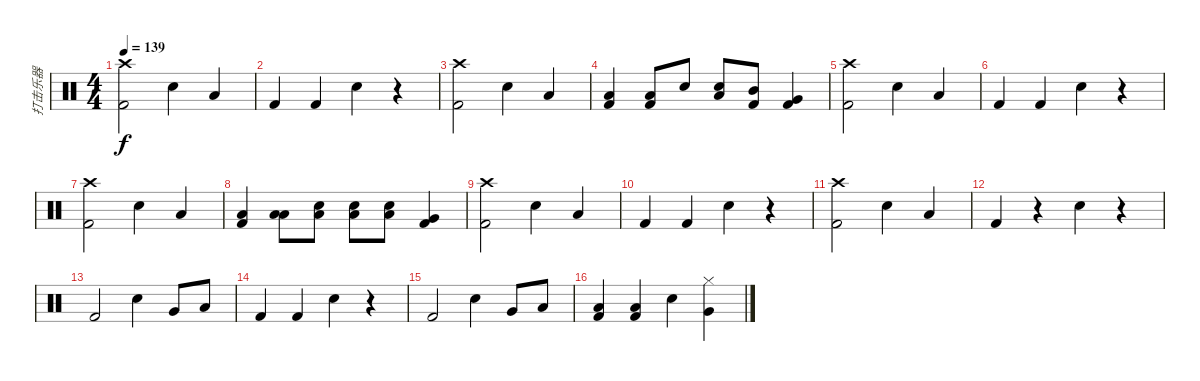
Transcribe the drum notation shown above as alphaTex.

\track ("打击乐器" "打击乐器") {instrument percussion}
\staff {score}
\articulation defaults
\ts (4 4)
\tempo 139
\clef neutral
\ks c
("Crash high (hit)" "Kick (hit) 2").2{dy f} "Electric Snare (hit)".4 "Low Floor Tom (hit)".4 |
"Kick (hit) 2".4 "Kick (hit) 2".4 "Electric Snare (hit)".4 r.4 |
("Crash high (hit)" "Kick (hit) 2").2 "Electric Snare (hit)".4 "Low Floor Tom (hit)".4 |
("Kick (hit) 2" "Low Floor Tom (hit)").4 ("Kick (hit) 2" "Low Floor Tom (hit)").8 "Electric Snare (hit)".8 ("Electric Snare (hit)" "Low Tom (hit)").8 ("Kick (hit) 2" "Mid Tom (hit)").8 ("Kick (hit) 2" "Very Low Tom (hit)").4 |
("Crash high (hit)" "Kick (hit) 2").2 "Electric Snare (hit)".4 "Low Floor Tom (hit)".4 |
"Kick (hit) 2".4 "Kick (hit) 2".4 "Electric Snare (hit)".4 r.4 |
("Crash high (hit)" "Kick (hit) 2").2 "Electric Snare (hit)".4 "Low Floor Tom (hit)".4 |
("Kick (hit) 2" "Low Floor Tom (hit)").4 ("Low Floor Tom (hit)" "Low Floor Tom (hit)").8 ("Electric Snare (hit)" "Low Floor Tom (hit)").8 ("Electric Snare (hit)" "Low Tom (hit)").8 ("Electric Snare (hit)" "Low Tom (hit)").8 ("Kick (hit) 2" "Very Low Tom (hit)").4 |
("Crash high (hit)" "Kick (hit) 2").2 "Electric Snare (hit)".4 "Low Floor Tom (hit)".4 |
"Kick (hit) 2".4 "Kick (hit) 2".4 "Electric Snare (hit)".4 r.4 |
("Crash high (hit)" "Kick (hit) 2").2 "Electric Snare (hit)".4 "Low Floor Tom (hit)".4 |
"Kick (hit) 2".4 r.4 "Electric Snare (hit)".4 r.4 |
"Kick (hit) 2".2 "Electric Snare (hit)".4 "Very Low Tom (hit)".8 "Low Floor Tom (hit)".8 |
"Kick (hit) 2".4 "Kick (hit) 2".4 "Electric Snare (hit)".4 r.4 |
"Kick (hit) 2".2 "Electric Snare (hit)".4 "Very Low Tom (hit)".8 "Low Floor Tom (hit)".8 |
("Kick (hit) 2" "Low Floor Tom (hit)").4 ("Kick (hit) 2" "Low Floor Tom (hit)").4 "Electric Snare (hit)".4 ("Very Low Tom (hit)" "Hi-Hat (closed)").4
